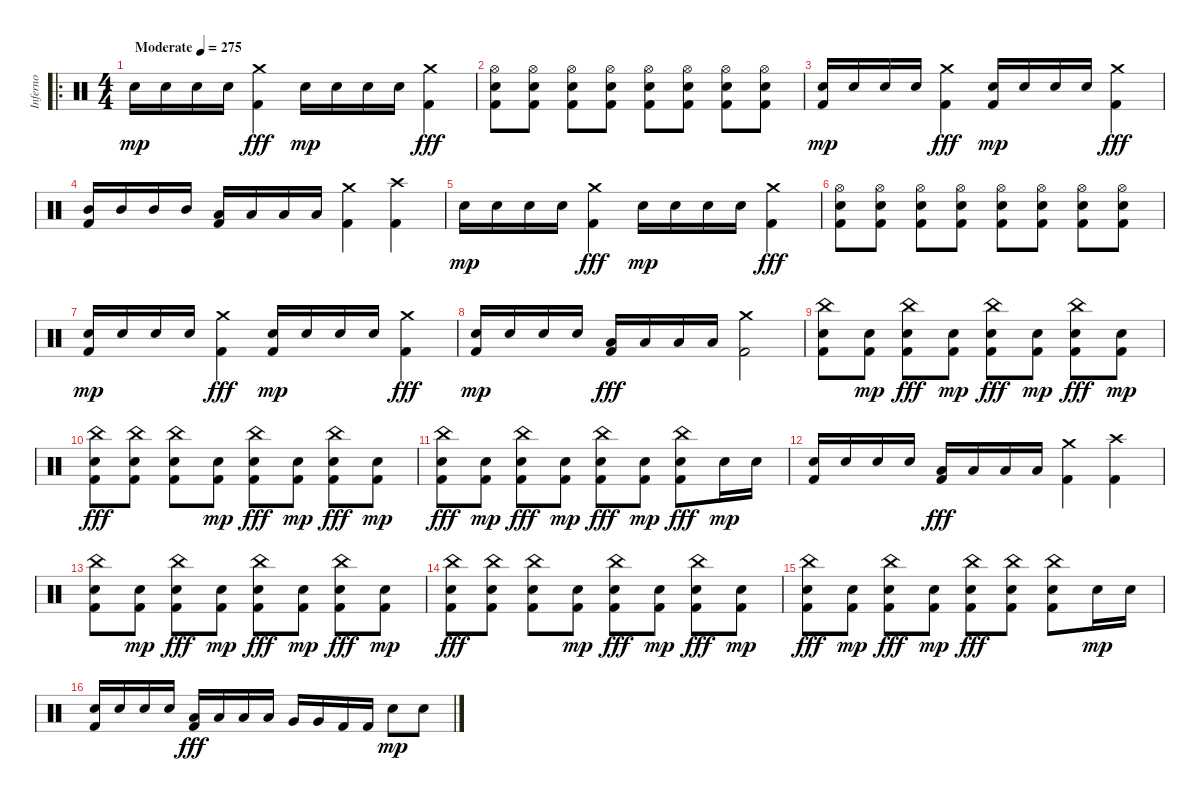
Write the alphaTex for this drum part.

\track ("Inferno" "Inferno") {instrument percussion}
\staff {score}
\articulation defaults
\ro
\ts (4 4)
\tempo (275 "Moderate")
\clef neutral
\ks c "Electric Snare (hit)".16{dy mp} "Electric Snare (hit)".16 "Electric Snare (hit)".16 "Electric Snare (hit)".16
("Kick (hit) 2" "Crash medium (hit)").4{dy fff} "Electric Snare (hit)".16{dy mp} "Electric Snare (hit)".16 "Electric Snare (hit)".16 "Electric Snare (hit)".16 ("Kick (hit) 2" "Crash medium (hit)").4{dy fff} |
("Kick (hit) 2" "Electric Snare (hit)" "Hi-Hat (open)").8 ("Kick (hit) 2" "Electric Snare (hit)" "Hi-Hat (open)").8 ("Kick (hit) 2" "Electric Snare (hit)" "Hi-Hat (open)").8 ("Kick (hit) 2" "Electric Snare (hit)" "Hi-Hat (open)").8 ("Kick (hit) 2" "Electric Snare (hit)" "Hi-Hat (open)").8 ("Kick (hit) 2" "Electric Snare (hit)" "Hi-Hat (open)").8 ("Kick (hit) 2" "Electric Snare (hit)" "Hi-Hat (open)").8 ("Kick (hit) 2" "Electric Snare (hit)" "Hi-Hat (open)").8 |
("Kick (hit) 2" "Electric Snare (hit)").16{dy mp} "Electric Snare (hit)".16 "Electric Snare (hit)".16 "Electric Snare (hit)".16 ("Kick (hit) 2" "Crash medium (hit)").4{dy fff} ("Kick (hit) 2" "Electric Snare (hit)").16{dy mp} "Electric Snare (hit)".16 "Electric Snare (hit)".16 "Electric Snare (hit)".16 ("Kick (hit) 2" "Crash medium (hit)").4{dy fff} |
("Kick (hit) 2" "Mid Tom (hit)").16 "Mid Tom (hit)".16 "Mid Tom (hit)".16 "Mid Tom (hit)".16 ("Kick (hit) 2" "Low Tom (hit)").16 "Low Tom (hit)".16 "Low Tom (hit)".16 "Low Tom (hit)".16 ("Kick (hit) 2" "Crash medium (hit)").4 ("Kick (hit) 2" "Crash high (hit)").4 |
"Electric Snare (hit)".16{dy mp} "Electric Snare (hit)".16 "Electric Snare (hit)".16 "Electric Snare (hit)".16 ("Kick (hit) 2" "Crash medium (hit)").4{dy fff} "Electric Snare (hit)".16{dy mp} "Electric Snare (hit)".16 "Electric Snare (hit)".16 "Electric Snare (hit)".16 ("Kick (hit) 2" "Crash medium (hit)").4{dy fff} |
("Kick (hit) 2" "Electric Snare (hit)" "Hi-Hat (open)").8 ("Kick (hit) 2" "Electric Snare (hit)" "Hi-Hat (open)").8 ("Kick (hit) 2" "Electric Snare (hit)" "Hi-Hat (open)").8 ("Kick (hit) 2" "Electric Snare (hit)" "Hi-Hat (open)").8 ("Kick (hit) 2" "Electric Snare (hit)" "Hi-Hat (open)").8 ("Kick (hit) 2" "Electric Snare (hit)" "Hi-Hat (open)").8 ("Kick (hit) 2" "Electric Snare (hit)" "Hi-Hat (open)").8 ("Kick (hit) 2" "Electric Snare (hit)" "Hi-Hat (open)").8 |
("Kick (hit) 2" "Electric Snare (hit)").16{dy mp} "Electric Snare (hit)".16 "Electric Snare (hit)".16 "Electric Snare (hit)".16 ("Kick (hit) 2" "Crash medium (hit)").4{dy fff} ("Kick (hit) 2" "Electric Snare (hit)").16{dy mp} "Electric Snare (hit)".16 "Electric Snare (hit)".16 "Electric Snare (hit)".16 ("Kick (hit) 2" "Crash medium (hit)").4{dy fff} |
("Kick (hit) 2" "Electric Snare (hit)").16{dy mp} "Electric Snare (hit)".16 "Electric Snare (hit)".16 "Electric Snare (hit)".16 ("Kick (hit) 2" "Low Tom (hit)").16{dy fff} "Low Tom (hit)".16 "Low Tom (hit)".16 "Low Tom (hit)".16 ("Kick (hit) 2" "Crash medium (hit)").2 |
("Kick (hit) 2" "Electric Snare (hit)" "China (hit)").8 ("Kick (hit) 2" "Electric Snare (hit)").8{dy mp} ("Kick (hit) 2" "Electric Snare (hit)" "China (hit)").8{dy fff} ("Kick (hit) 2" "Electric Snare (hit)").8{dy mp} ("Kick (hit) 2" "Electric Snare (hit)" "China (hit)").8{dy fff} ("Kick (hit) 2" "Electric Snare (hit)").8{dy mp} ("Kick (hit) 2" "Electric Snare (hit)" "China (hit)").8{dy fff} ("Kick (hit) 2" "Electric Snare (hit)").8{dy mp} |
("Kick (hit) 2" "Electric Snare (hit)" "China (hit)").8{dy fff} ("Kick (hit) 2" "Electric Snare (hit)" "China (hit)").8 ("Kick (hit) 2" "Electric Snare (hit)" "China (hit)").8 ("Kick (hit) 2" "Electric Snare (hit)").8{dy mp} ("Kick (hit) 2" "Electric Snare (hit)" "China (hit)").8{dy fff} ("Kick (hit) 2" "Electric Snare (hit)").8{dy mp} ("Kick (hit) 2" "Electric Snare (hit)" "China (hit)").8{dy fff} ("Kick (hit) 2" "Electric Snare (hit)").8{dy mp} |
("Kick (hit) 2" "Electric Snare (hit)" "China (hit)").8{dy fff} ("Kick (hit) 2" "Electric Snare (hit)").8{dy mp} ("Kick (hit) 2" "Electric Snare (hit)" "China (hit)").8{dy fff} ("Kick (hit) 2" "Electric Snare (hit)").8{dy mp} ("Kick (hit) 2" "Electric Snare (hit)" "China (hit)").8{dy fff} ("Kick (hit) 2" "Electric Snare (hit)").8{dy mp} ("Kick (hit) 2" "Electric Snare (hit)" "China (hit)").8{dy fff} "Electric Snare (hit)".16{dy mp} "Electric Snare (hit)".16 |
("Kick (hit) 2" "Electric Snare (hit)").16 "Electric Snare (hit)".16 "Electric Snare (hit)".16 "Electric Snare (hit)".16 ("Kick (hit) 2" "Low Tom (hit)").16{dy fff} "Low Tom (hit)".16 "Low Tom (hit)".16 "Low Tom (hit)".16 ("Kick (hit) 2" "Crash medium (hit)").4 ("Kick (hit) 2" "Crash high (hit)").4 |
("Kick (hit) 2" "Electric Snare (hit)" "China (hit)").8 ("Kick (hit) 2" "Electric Snare (hit)").8{dy mp} ("Kick (hit) 2" "Electric Snare (hit)" "China (hit)").8{dy fff} ("Kick (hit) 2" "Electric Snare (hit)").8{dy mp} ("Kick (hit) 2" "Electric Snare (hit)" "China (hit)").8{dy fff} ("Kick (hit) 2" "Electric Snare (hit)").8{dy mp} ("Kick (hit) 2" "Electric Snare (hit)" "China (hit)").8{dy fff} ("Kick (hit) 2" "Electric Snare (hit)").8{dy mp} |
("Kick (hit) 2" "Electric Snare (hit)" "China (hit)").8{dy fff} ("Kick (hit) 2" "Electric Snare (hit)" "China (hit)").8 ("Kick (hit) 2" "Electric Snare (hit)" "China (hit)").8 ("Kick (hit) 2" "Electric Snare (hit)").8{dy mp} ("Kick (hit) 2" "Electric Snare (hit)" "China (hit)").8{dy fff} ("Kick (hit) 2" "Electric Snare (hit)").8{dy mp} ("Kick (hit) 2" "Electric Snare (hit)" "China (hit)").8{dy fff} ("Kick (hit) 2" "Electric Snare (hit)").8{dy mp} |
("Kick (hit) 2" "Electric Snare (hit)" "China (hit)").8{dy fff} ("Kick (hit) 2" "Electric Snare (hit)").8{dy mp} ("Kick (hit) 2" "Electric Snare (hit)" "China (hit)").8{dy fff} ("Kick (hit) 2" "Electric Snare (hit)").8{dy mp} ("Kick (hit) 2" "Electric Snare (hit)" "China (hit)").8{dy fff} ("Kick (hit) 2" "Electric Snare (hit)" "China (hit)").8 ("Kick (hit) 2" "Electric Snare (hit)" "China (hit)").8 "Electric Snare (hit)".16{dy mp} "Electric Snare (hit)".16 |
("Kick (hit) 2" "Electric Snare (hit)").16 "Electric Snare (hit)".16 "Electric Snare (hit)".16 "Electric Snare (hit)".16 ("Kick (hit) 2" "Low Tom (hit)").16{dy fff} "Low Tom (hit)".16 "Low Tom (hit)".16 "Low Tom (hit)".16 "Very Low Tom (hit)".16 "Very Low Tom (hit)".16 "Kick (hit) 2".16 "Kick (hit) 2".16 "Electric Snare (hit)".8{dy mp} "Electric Snare (hit)".8
